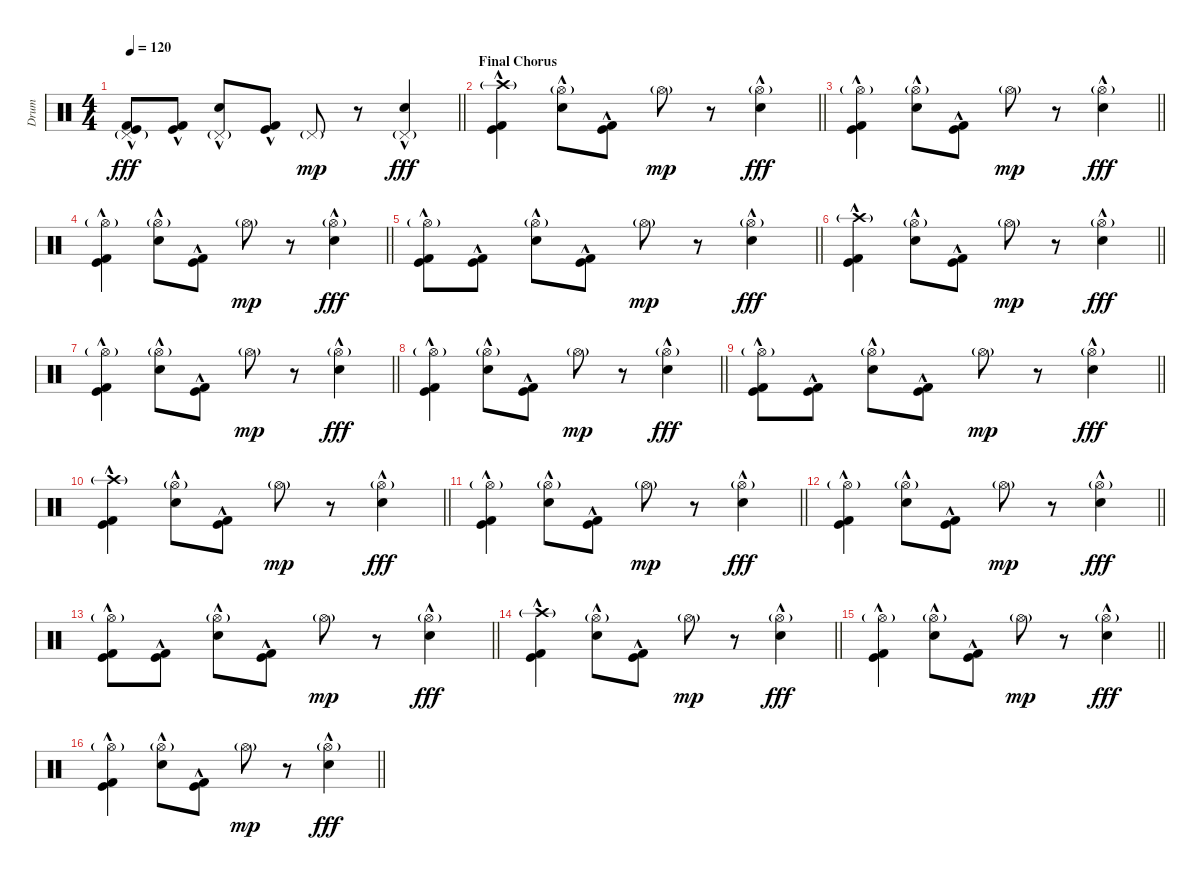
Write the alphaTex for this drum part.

\track ("Drum" "Drum") {instrument percussion}
\staff {score}
\articulation defaults
\ts (4 4)
\tempo 120
\clef neutral
\barLineRight lightlight
\ks c
("Pedal Hi-Hat (hit)"{g} "Kick (hit) 2"{hac} "Kick (hit)"{hac}).8{dy fff} ("Kick (hit) 2"{hac} "Kick (hit)"{hac}).8 ("Pedal Hi-Hat (hit)"{g} "Snare (hit) 2"{hac}).8 ("Kick (hit) 2"{hac} "Kick (hit)"{hac}).8 "Pedal Hi-Hat (hit)"{g}.8{dy mp} r.8 ("Pedal Hi-Hat (hit)"{g} "Snare (hit) 2"{hac}).4{dy fff} |
\section ("" "Final Chorus")
\barLineRight lightlight
("Crash high (hit)"{g} "Kick (hit) 2"{hac} "Kick (hit)"{hac}).4 ("Hi-Hat (open)"{g} "Snare (hit) 2"{hac}).8 ("Kick (hit) 2"{hac} "Kick (hit)"{hac}).8 "Hi-Hat (open)"{g}.8{dy mp} r.8 ("Hi-Hat (open)"{g} "Snare (hit) 2"{hac}).4{dy fff} |
\barLineRight lightlight
("Hi-Hat (open)"{g} "Kick (hit) 2"{hac} "Kick (hit)"{hac}).4 ("Hi-Hat (open)"{g} "Snare (hit) 2"{hac}).8 ("Kick (hit) 2"{hac} "Kick (hit)"{hac}).8 "Hi-Hat (open)"{g}.8{dy mp} r.8 ("Hi-Hat (open)"{g} "Snare (hit) 2"{hac}).4{dy fff} |
\barLineRight lightlight
("Hi-Hat (open)"{g} "Kick (hit) 2"{hac} "Kick (hit)"{hac}).4 ("Hi-Hat (open)"{g} "Snare (hit) 2"{hac}).8 ("Kick (hit) 2"{hac} "Kick (hit)"{hac}).8 "Hi-Hat (open)"{g}.8{dy mp} r.8 ("Hi-Hat (open)"{g} "Snare (hit) 2"{hac}).4{dy fff} |
\barLineRight lightlight
("Hi-Hat (open)"{g} "Kick (hit) 2"{hac} "Kick (hit)"{hac}).8 ("Kick (hit) 2"{hac} "Kick (hit)"{hac}).8 ("Hi-Hat (open)"{g} "Snare (hit) 2"{hac}).8 ("Kick (hit) 2"{hac} "Kick (hit)"{hac}).8 "Hi-Hat (open)"{g}.8{dy mp} r.8 ("Hi-Hat (open)"{g} "Snare (hit) 2"{hac}).4{dy fff} |
\barLineRight lightlight
("Crash high (hit)"{g} "Kick (hit) 2"{hac} "Kick (hit)"{hac}).4 ("Hi-Hat (open)"{g} "Snare (hit) 2"{hac}).8 ("Kick (hit) 2"{hac} "Kick (hit)"{hac}).8 "Hi-Hat (open)"{g}.8{dy mp} r.8 ("Hi-Hat (open)"{g} "Snare (hit) 2"{hac}).4{dy fff} |
\barLineRight lightlight
("Hi-Hat (open)"{g} "Kick (hit) 2"{hac} "Kick (hit)"{hac}).4 ("Hi-Hat (open)"{g} "Snare (hit) 2"{hac}).8 ("Kick (hit) 2"{hac} "Kick (hit)"{hac}).8 "Hi-Hat (open)"{g}.8{dy mp} r.8 ("Hi-Hat (open)"{g} "Snare (hit) 2"{hac}).4{dy fff} |
\barLineRight lightlight
("Hi-Hat (open)"{g} "Kick (hit) 2"{hac} "Kick (hit)"{hac}).4 ("Hi-Hat (open)"{g} "Snare (hit) 2"{hac}).8 ("Kick (hit) 2"{hac} "Kick (hit)"{hac}).8 "Hi-Hat (open)"{g}.8{dy mp} r.8 ("Hi-Hat (open)"{g} "Snare (hit) 2"{hac}).4{dy fff} |
\barLineRight lightlight
("Hi-Hat (open)"{g} "Kick (hit) 2"{hac} "Kick (hit)"{hac}).8 ("Kick (hit) 2"{hac} "Kick (hit)"{hac}).8 ("Hi-Hat (open)"{g} "Snare (hit) 2"{hac}).8 ("Kick (hit) 2"{hac} "Kick (hit)"{hac}).8 "Hi-Hat (open)"{g}.8{dy mp} r.8 ("Hi-Hat (open)"{g} "Snare (hit) 2"{hac}).4{dy fff} |
\barLineRight lightlight
("Crash high (hit)"{g} "Kick (hit) 2"{hac} "Kick (hit)"{hac}).4 ("Hi-Hat (open)"{g} "Snare (hit) 2"{hac}).8 ("Kick (hit) 2"{hac} "Kick (hit)"{hac}).8 "Hi-Hat (open)"{g}.8{dy mp} r.8 ("Hi-Hat (open)"{g} "Snare (hit) 2"{hac}).4{dy fff} |
\barLineRight lightlight
("Hi-Hat (open)"{g} "Kick (hit) 2"{hac} "Kick (hit)"{hac}).4 ("Hi-Hat (open)"{g} "Snare (hit) 2"{hac}).8 ("Kick (hit) 2"{hac} "Kick (hit)"{hac}).8 "Hi-Hat (open)"{g}.8{dy mp} r.8 ("Hi-Hat (open)"{g} "Snare (hit) 2"{hac}).4{dy fff} |
\barLineRight lightlight
("Hi-Hat (open)"{g} "Kick (hit) 2"{hac} "Kick (hit)"{hac}).4 ("Hi-Hat (open)"{g} "Snare (hit) 2"{hac}).8 ("Kick (hit) 2"{hac} "Kick (hit)"{hac}).8 "Hi-Hat (open)"{g}.8{dy mp} r.8 ("Hi-Hat (open)"{g} "Snare (hit) 2"{hac}).4{dy fff} |
\barLineRight lightlight
("Hi-Hat (open)"{g} "Kick (hit) 2"{hac} "Kick (hit)"{hac}).8 ("Kick (hit) 2"{hac} "Kick (hit)"{hac}).8 ("Hi-Hat (open)"{g} "Snare (hit) 2"{hac}).8 ("Kick (hit) 2"{hac} "Kick (hit)"{hac}).8 "Hi-Hat (open)"{g}.8{dy mp} r.8 ("Hi-Hat (open)"{g} "Snare (hit) 2"{hac}).4{dy fff} |
\barLineRight lightlight
("Crash high (hit)"{g} "Kick (hit) 2"{hac} "Kick (hit)"{hac}).4 ("Hi-Hat (open)"{g} "Snare (hit) 2"{hac}).8 ("Kick (hit) 2"{hac} "Kick (hit)"{hac}).8 "Hi-Hat (open)"{g}.8{dy mp} r.8 ("Hi-Hat (open)"{g} "Snare (hit) 2"{hac}).4{dy fff} |
\barLineRight lightlight
("Hi-Hat (open)"{g} "Kick (hit) 2"{hac} "Kick (hit)"{hac}).4 ("Hi-Hat (open)"{g} "Snare (hit) 2"{hac}).8 ("Kick (hit) 2"{hac} "Kick (hit)"{hac}).8 "Hi-Hat (open)"{g}.8{dy mp} r.8 ("Hi-Hat (open)"{g} "Snare (hit) 2"{hac}).4{dy fff} |
\barLineRight lightlight
("Hi-Hat (open)"{g} "Kick (hit) 2"{hac} "Kick (hit)"{hac}).4 ("Hi-Hat (open)"{g} "Snare (hit) 2"{hac}).8 ("Kick (hit) 2"{hac} "Kick (hit)"{hac}).8 "Hi-Hat (open)"{g}.8{dy mp} r.8 ("Hi-Hat (open)"{g} "Snare (hit) 2"{hac}).4{dy fff}
